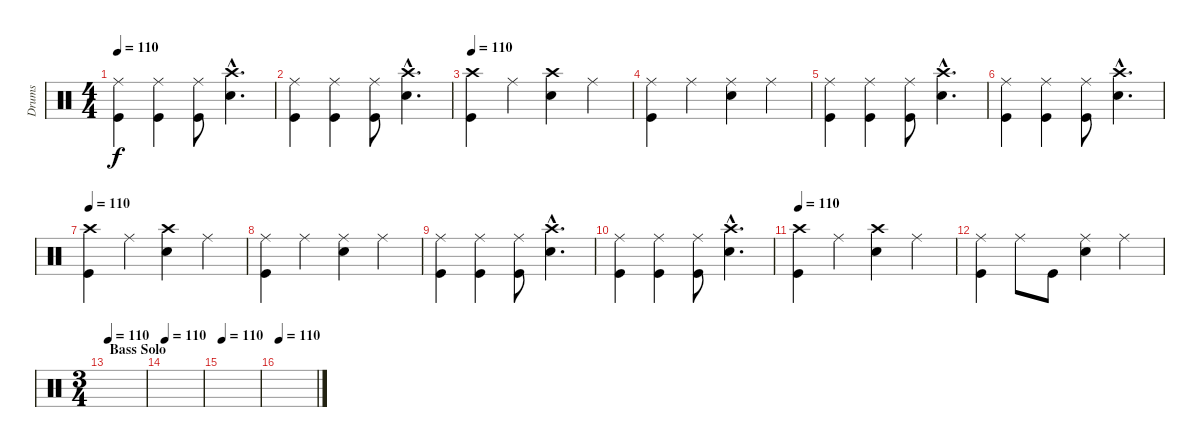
\track ("Drums" "Drums") {instrument percussion}
\staff {score}
\articulation defaults
\ts (4 4)
\tempo 110
\clef neutral
\ks c
("Ride (middle)" "Kick (hit)").4{dy f} ("Ride (middle)" "Kick (hit)").4 ("Ride (middle)" "Kick (hit)").8 ("Crash high (hit)"{hac} "Snare (hit) 2"{hac}).4{d} |
("Ride (middle)" "Kick (hit)").4 ("Ride (middle)" "Kick (hit)").4 ("Ride (middle)" "Kick (hit)").8 ("Crash high (hit)"{hac} "Snare (hit) 2"{hac}).4{d} |
\tempo 110
("Crash high (hit)" "Kick (hit)").4 "Ride (middle)".4 ("Crash high (hit)" "Snare (hit) 2").4 "Ride (middle)".4 |
("Ride (middle)" "Kick (hit)").4 "Ride (middle)".4 ("Ride (middle)" "Snare (hit) 2").4 "Ride (middle)".4 |
("Ride (middle)" "Kick (hit)").4 ("Ride (middle)" "Kick (hit)").4 ("Ride (middle)" "Kick (hit)").8 ("Crash high (hit)"{hac} "Snare (hit) 2"{hac}).4{d} |
("Ride (middle)" "Kick (hit)").4 ("Ride (middle)" "Kick (hit)").4 ("Ride (middle)" "Kick (hit)").8 ("Crash high (hit)"{hac} "Snare (hit) 2"{hac}).4{d} |
\tempo 110
("Crash high (hit)" "Kick (hit)").4 "Ride (middle)".4 ("Crash high (hit)" "Snare (hit) 2").4 "Ride (middle)".4 |
("Ride (middle)" "Kick (hit)").4 "Ride (middle)".4 ("Ride (middle)" "Snare (hit) 2").4 "Ride (middle)".4 |
("Ride (middle)" "Kick (hit)").4 ("Ride (middle)" "Kick (hit)").4 ("Ride (middle)" "Kick (hit)").8 ("Crash high (hit)"{hac} "Snare (hit) 2"{hac}).4{d} |
("Ride (middle)" "Kick (hit)").4 ("Ride (middle)" "Kick (hit)").4 ("Ride (middle)" "Kick (hit)").8 ("Crash high (hit)"{hac} "Snare (hit) 2"{hac}).4{d} |
\tempo 110
("Crash high (hit)" "Kick (hit)").4 "Ride (middle)".4 ("Crash high (hit)" "Snare (hit) 2").4 "Ride (middle)".4 |
("Ride (middle)" "Kick (hit)").4 "Ride (middle)".8 "Kick (hit)".8 ("Ride (middle)" "Snare (hit) 2").4 "Ride (middle)".4 |
\ts (3 4)
\section ("" "Bass Solo")
\tempo 110
|
\tempo 110
|
\tempo 110
|
\tempo 110
